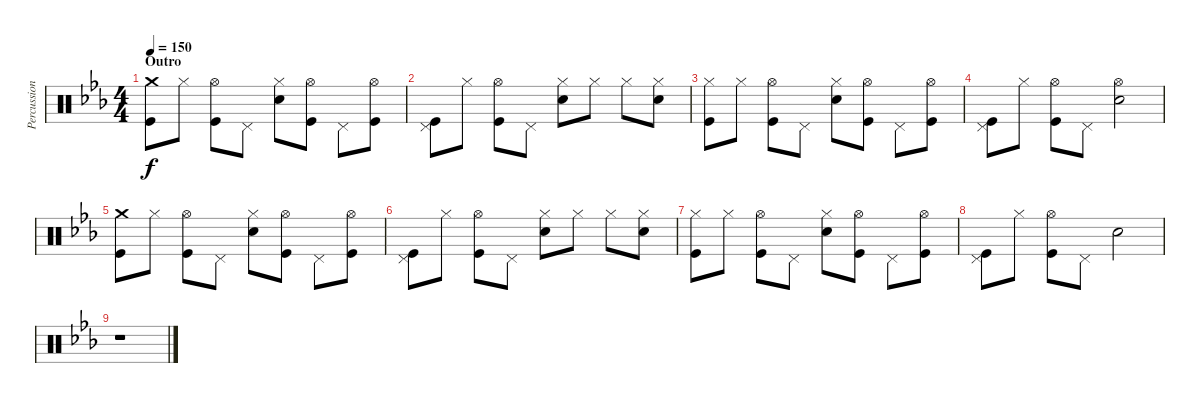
\track ("Percussion" "Percussion") {instrument percussion}
\staff {score}
\articulation defaults
\ts (4 4)
\section ("" "Outro")
\tempo 150
\clef neutral
\ks eb
("Crash medium (hit)" "Kick (hit)").8{dy f} "Hi-Hat (closed)".8 ("Hi-Hat (open)" "Kick (hit)").8 "Pedal Hi-Hat (hit)".8 ("Hi-Hat (closed)" "Electric Snare (hit)").8 ("Hi-Hat (open)" "Kick (hit)").8 "Pedal Hi-Hat (hit)".8 ("Hi-Hat (open)" "Kick (hit)").8 |
("Pedal Hi-Hat (hit)" "Kick (hit)").8 "Hi-Hat (closed)".8 ("Hi-Hat (open)" "Kick (hit)").8 "Pedal Hi-Hat (hit)".8 ("Hi-Hat (closed)" "Electric Snare (hit)").8 "Hi-Hat (closed)".8 "Hi-Hat (closed)".8 ("Hi-Hat (closed)" "Electric Snare (hit)").8 |
("Hi-Hat (closed)" "Kick (hit)").8 "Hi-Hat (closed)".8 ("Hi-Hat (open)" "Kick (hit)").8 "Pedal Hi-Hat (hit)".8 ("Hi-Hat (closed)" "Electric Snare (hit)").8 ("Hi-Hat (open)" "Kick (hit)").8 "Pedal Hi-Hat (hit)".8 ("Hi-Hat (open)" "Kick (hit)").8 |
("Pedal Hi-Hat (hit)" "Kick (hit)").8 "Hi-Hat (closed)".8 ("Hi-Hat (open)" "Kick (hit)").8 "Pedal Hi-Hat (hit)".8 ("Hi-Hat (open)" "Electric Snare (hit)").2 |
("Crash medium (hit)" "Kick (hit)").8 "Hi-Hat (closed)".8 ("Hi-Hat (open)" "Kick (hit)").8 "Pedal Hi-Hat (hit)".8 ("Hi-Hat (closed)" "Electric Snare (hit)").8 ("Hi-Hat (open)" "Kick (hit)").8 "Pedal Hi-Hat (hit)".8 ("Hi-Hat (open)" "Kick (hit)").8 |
("Pedal Hi-Hat (hit)" "Kick (hit)").8 "Hi-Hat (closed)".8 ("Hi-Hat (open)" "Kick (hit)").8 "Pedal Hi-Hat (hit)".8 ("Hi-Hat (closed)" "Electric Snare (hit)").8 "Hi-Hat (closed)".8 "Hi-Hat (closed)".8 ("Hi-Hat (closed)" "Electric Snare (hit)").8 |
("Hi-Hat (closed)" "Kick (hit)").8 "Hi-Hat (closed)".8 ("Hi-Hat (open)" "Kick (hit)").8 "Pedal Hi-Hat (hit)".8 ("Hi-Hat (closed)" "Electric Snare (hit)").8 ("Hi-Hat (open)" "Kick (hit)").8 "Pedal Hi-Hat (hit)".8 ("Hi-Hat (open)" "Kick (hit)").8 |
("Pedal Hi-Hat (hit)" "Kick (hit)").8 "Hi-Hat (closed)".8 ("Hi-Hat (open)" "Kick (hit)").8 "Pedal Hi-Hat (hit)".8 "Electric Snare (hit)".2 |
r.1
